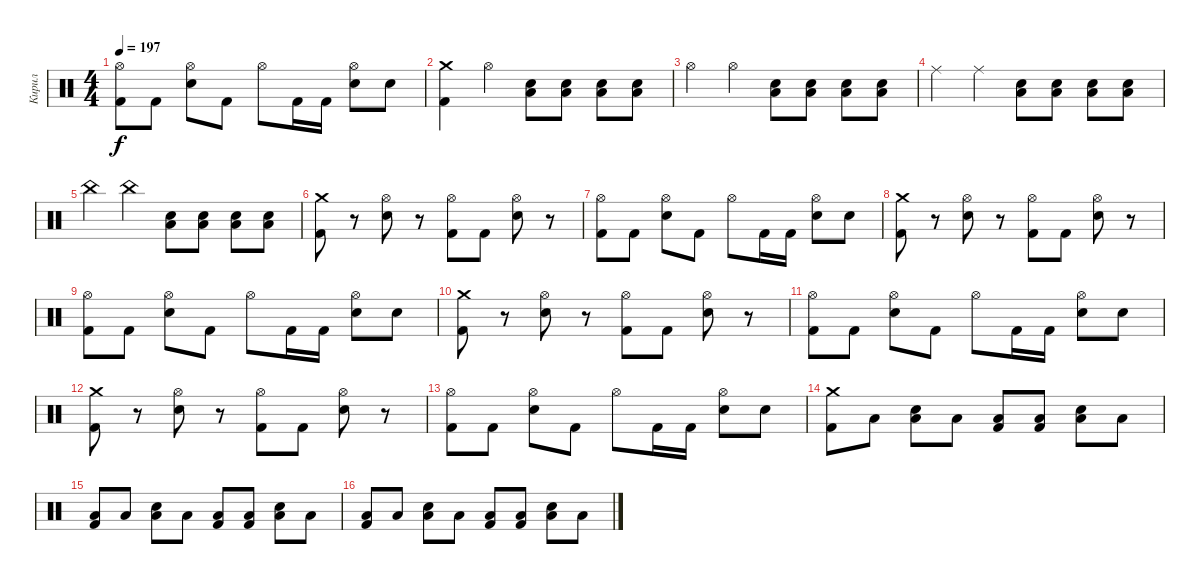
\track ("Кирил" "Кирил") {instrument percussion}
\staff {score}
\articulation defaults
\ts (4 4)
\tempo 197
\clef neutral
\ks c
("Kick (hit) 2" "Hi-Hat (open)").8{dy f} "Kick (hit) 2".8 ("Electric Snare (hit)" "Hi-Hat (open)").8 "Kick (hit) 2".8 "Hi-Hat (open)".8 "Kick (hit) 2".16 "Kick (hit) 2".16 ("Electric Snare (hit)" "Hi-Hat (open)").8 "Electric Snare (hit)".8 |
("Kick (hit) 2" "Crash medium (hit)").4 "Hi-Hat (open)".4 ("Electric Snare (hit)" "Low Floor Tom (hit)").8 ("Electric Snare (hit)" "Low Floor Tom (hit)").8 ("Electric Snare (hit)" "Low Floor Tom (hit)").8 ("Electric Snare (hit)" "Low Floor Tom (hit)").8 |
"Hi-Hat (open)".4 "Hi-Hat (open)".4 ("Electric Snare (hit)" "Low Floor Tom (hit)").8 ("Electric Snare (hit)" "Low Floor Tom (hit)").8 ("Electric Snare (hit)" "Low Floor Tom (hit)").8 ("Electric Snare (hit)" "Low Floor Tom (hit)").8 |
"Ride (middle)".4 "Ride (middle)".4 ("Electric Snare (hit)" "Low Floor Tom (hit)").8 ("Electric Snare (hit)" "Low Floor Tom (hit)").8 ("Electric Snare (hit)" "Low Floor Tom (hit)").8 ("Electric Snare (hit)" "Low Floor Tom (hit)").8 |
"China (hit)".4 "China (hit)".4 ("Electric Snare (hit)" "Low Floor Tom (hit)").8 ("Electric Snare (hit)" "Low Floor Tom (hit)").8 ("Electric Snare (hit)" "Low Floor Tom (hit)").8 ("Electric Snare (hit)" "Low Floor Tom (hit)").8 |
("Kick (hit) 2" "Crash medium (hit)").8 r.8 ("Electric Snare (hit)" "Hi-Hat (open)").8 r.8 ("Kick (hit) 2" "Hi-Hat (open)").8 "Kick (hit) 2".8 ("Electric Snare (hit)" "Hi-Hat (open)").8 r.8 |
("Kick (hit) 2" "Hi-Hat (open)").8 "Kick (hit) 2".8 ("Electric Snare (hit)" "Hi-Hat (open)").8 "Kick (hit) 2".8 "Hi-Hat (open)".8 "Kick (hit) 2".16 "Kick (hit) 2".16 ("Electric Snare (hit)" "Hi-Hat (open)").8 "Electric Snare (hit)".8 |
("Kick (hit) 2" "Crash medium (hit)").8 r.8 ("Electric Snare (hit)" "Hi-Hat (open)").8 r.8 ("Kick (hit) 2" "Hi-Hat (open)").8 "Kick (hit) 2".8 ("Electric Snare (hit)" "Hi-Hat (open)").8 r.8 |
("Kick (hit) 2" "Hi-Hat (open)").8 "Kick (hit) 2".8 ("Electric Snare (hit)" "Hi-Hat (open)").8 "Kick (hit) 2".8 "Hi-Hat (open)".8 "Kick (hit) 2".16 "Kick (hit) 2".16 ("Electric Snare (hit)" "Hi-Hat (open)").8 "Electric Snare (hit)".8 |
("Kick (hit) 2" "Crash medium (hit)").8 r.8 ("Electric Snare (hit)" "Hi-Hat (open)").8 r.8 ("Kick (hit) 2" "Hi-Hat (open)").8 "Kick (hit) 2".8 ("Electric Snare (hit)" "Hi-Hat (open)").8 r.8 |
("Kick (hit) 2" "Hi-Hat (open)").8 "Kick (hit) 2".8 ("Electric Snare (hit)" "Hi-Hat (open)").8 "Kick (hit) 2".8 "Hi-Hat (open)".8 "Kick (hit) 2".16 "Kick (hit) 2".16 ("Electric Snare (hit)" "Hi-Hat (open)").8 "Electric Snare (hit)".8 |
("Kick (hit) 2" "Crash medium (hit)").8 r.8 ("Electric Snare (hit)" "Hi-Hat (open)").8 r.8 ("Kick (hit) 2" "Hi-Hat (open)").8 "Kick (hit) 2".8 ("Electric Snare (hit)" "Hi-Hat (open)").8 r.8 |
("Kick (hit) 2" "Hi-Hat (open)").8 "Kick (hit) 2".8 ("Electric Snare (hit)" "Hi-Hat (open)").8 "Kick (hit) 2".8 "Hi-Hat (open)".8 "Kick (hit) 2".16 "Kick (hit) 2".16 ("Electric Snare (hit)" "Hi-Hat (open)").8 "Electric Snare (hit)".8 |
("Kick (hit) 2" "Crash medium (hit)").8 "Low Floor Tom (hit)".8 ("Electric Snare (hit)" "Low Floor Tom (hit)").8 "Low Floor Tom (hit)".8 ("Kick (hit) 2" "Low Floor Tom (hit)").8 ("Kick (hit) 2" "Low Floor Tom (hit)").8 ("Electric Snare (hit)" "Low Floor Tom (hit)").8 "Low Floor Tom (hit)".8 |
("Kick (hit) 2" "Low Floor Tom (hit)").8 "Low Floor Tom (hit)".8 ("Electric Snare (hit)" "Low Floor Tom (hit)").8 "Low Floor Tom (hit)".8 ("Kick (hit) 2" "Low Floor Tom (hit)").8 ("Kick (hit) 2" "Low Floor Tom (hit)").8 ("Electric Snare (hit)" "Low Floor Tom (hit)").8 "Low Floor Tom (hit)".8 |
("Kick (hit) 2" "Low Floor Tom (hit)").8 "Low Floor Tom (hit)".8 ("Electric Snare (hit)" "Low Floor Tom (hit)").8 "Low Floor Tom (hit)".8 ("Kick (hit) 2" "Low Floor Tom (hit)").8 ("Kick (hit) 2" "Low Floor Tom (hit)").8 ("Electric Snare (hit)" "Low Floor Tom (hit)").8 "Low Floor Tom (hit)".8
